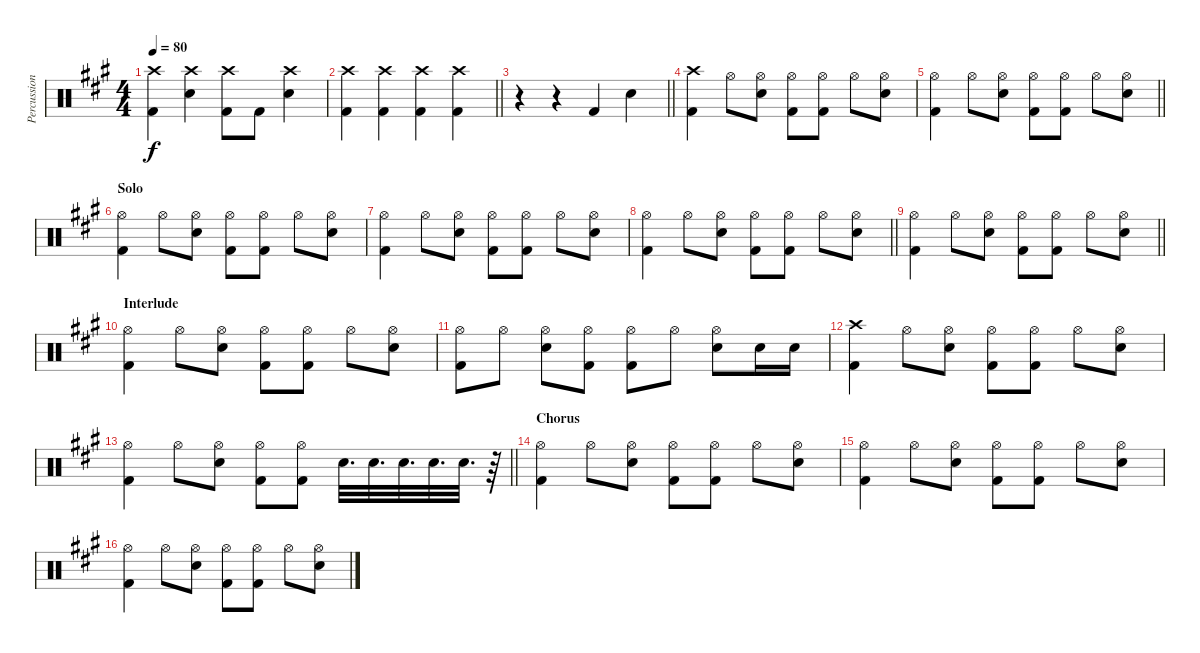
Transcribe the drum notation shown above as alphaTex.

\track ("Percussion" "Percussion") {instrument percussion}
\staff {score}
\articulation defaults
\ts (4 4)
\tempo 80
\clef neutral
\ks a
("Crash high (hit)" "Kick (hit) 2").4{dy f} ("Crash high (hit)" "Snare (hit) 2").4 ("Crash high (hit)" "Kick (hit) 2").8 "Kick (hit) 2".8 ("Crash high (hit)" "Snare (hit) 2").4 |
\barLineRight lightlight
("Crash high (hit)" "Kick (hit) 2").4 ("Crash high (hit)" "Kick (hit) 2").4 ("Crash high (hit)" "Kick (hit) 2").4 ("Crash high (hit)" "Kick (hit) 2").4 |
\barLineRight lightlight
r.4 r.4 "Kick (hit) 2".4 "Snare (hit) 2".4 |
("Crash high (hit)" "Kick (hit) 2").4 "Hi-Hat (open)".8 ("Hi-Hat (open)" "Snare (hit) 2").8 ("Hi-Hat (open)" "Kick (hit) 2").8 ("Hi-Hat (open)" "Kick (hit) 2").8 "Hi-Hat (open)".8 ("Hi-Hat (open)" "Snare (hit) 2").8 |
\barLineRight lightlight
("Hi-Hat (open)" "Kick (hit) 2").4 "Hi-Hat (open)".8 ("Hi-Hat (open)" "Snare (hit) 2").8 ("Hi-Hat (open)" "Kick (hit) 2").8 ("Hi-Hat (open)" "Kick (hit) 2").8 "Hi-Hat (open)".8 ("Hi-Hat (open)" "Snare (hit) 2").8 |
\section ("" "Solo")
("Hi-Hat (open)" "Kick (hit) 2").4 "Hi-Hat (open)".8 ("Hi-Hat (open)" "Snare (hit) 2").8 ("Hi-Hat (open)" "Kick (hit) 2").8 ("Hi-Hat (open)" "Kick (hit) 2").8 "Hi-Hat (open)".8 ("Hi-Hat (open)" "Snare (hit) 2").8 |
("Hi-Hat (open)" "Kick (hit) 2").4 "Hi-Hat (open)".8 ("Hi-Hat (open)" "Snare (hit) 2").8 ("Hi-Hat (open)" "Kick (hit) 2").8 ("Hi-Hat (open)" "Kick (hit) 2").8 "Hi-Hat (open)".8 ("Hi-Hat (open)" "Snare (hit) 2").8 |
\barLineRight lightlight
("Hi-Hat (open)" "Kick (hit) 2").4 "Hi-Hat (open)".8 ("Hi-Hat (open)" "Snare (hit) 2").8 ("Hi-Hat (open)" "Kick (hit) 2").8 ("Hi-Hat (open)" "Kick (hit) 2").8 "Hi-Hat (open)".8 ("Hi-Hat (open)" "Snare (hit) 2").8 |
\barLineRight lightlight
("Hi-Hat (open)" "Kick (hit) 2").4 "Hi-Hat (open)".8 ("Hi-Hat (open)" "Snare (hit) 2").8 ("Hi-Hat (open)" "Kick (hit) 2").8 ("Hi-Hat (open)" "Kick (hit) 2").8 "Hi-Hat (open)".8 ("Hi-Hat (open)" "Snare (hit) 2").8 |
\section ("" "Interlude")
("Hi-Hat (open)" "Kick (hit) 2").4 "Hi-Hat (open)".8 ("Hi-Hat (open)" "Snare (hit) 2").8 ("Hi-Hat (open)" "Kick (hit) 2").8 ("Hi-Hat (open)" "Kick (hit) 2").8 "Hi-Hat (open)".8 ("Hi-Hat (open)" "Snare (hit) 2").8 |
("Hi-Hat (open)" "Kick (hit) 2").8 "Hi-Hat (open)".8 ("Hi-Hat (open)" "Snare (hit) 2").8 ("Hi-Hat (open)" "Kick (hit) 2").8 ("Hi-Hat (open)" "Kick (hit) 2").8 "Hi-Hat (open)".8 ("Hi-Hat (open)" "Snare (hit) 2").8 "Snare (hit) 2".16 "Snare (hit) 2".16 |
("Crash high (hit)" "Kick (hit) 2").4 "Hi-Hat (open)".8 ("Hi-Hat (open)" "Snare (hit) 2").8 ("Hi-Hat (open)" "Kick (hit) 2").8 ("Hi-Hat (open)" "Kick (hit) 2").8 "Hi-Hat (open)".8 ("Hi-Hat (open)" "Snare (hit) 2").8 |
\barLineRight lightlight
("Hi-Hat (open)" "Kick (hit) 2").4 "Hi-Hat (open)".8 ("Hi-Hat (open)" "Snare (hit) 2").8 ("Hi-Hat (open)" "Kick (hit) 2").8 ("Hi-Hat (open)" "Kick (hit) 2").8 "Snare (hit) 2".32{d} "Snare (hit) 2".32{d} "Snare (hit) 2".32{d} "Snare (hit) 2".32{d} "Snare (hit) 2".32{d} r.64 |
\section ("" "Chorus")
("Hi-Hat (open)" "Kick (hit) 2").4 "Hi-Hat (open)".8 ("Hi-Hat (open)" "Snare (hit) 2").8 ("Hi-Hat (open)" "Kick (hit) 2").8 ("Hi-Hat (open)" "Kick (hit) 2").8 "Hi-Hat (open)".8 ("Hi-Hat (open)" "Snare (hit) 2").8 |
("Hi-Hat (open)" "Kick (hit) 2").4 "Hi-Hat (open)".8 ("Hi-Hat (open)" "Snare (hit) 2").8 ("Hi-Hat (open)" "Kick (hit) 2").8 ("Hi-Hat (open)" "Kick (hit) 2").8 "Hi-Hat (open)".8 ("Hi-Hat (open)" "Snare (hit) 2").8 |
("Hi-Hat (open)" "Kick (hit) 2").4 "Hi-Hat (open)".8 ("Hi-Hat (open)" "Snare (hit) 2").8 ("Hi-Hat (open)" "Kick (hit) 2").8 ("Hi-Hat (open)" "Kick (hit) 2").8 "Hi-Hat (open)".8 ("Hi-Hat (open)" "Snare (hit) 2").8
